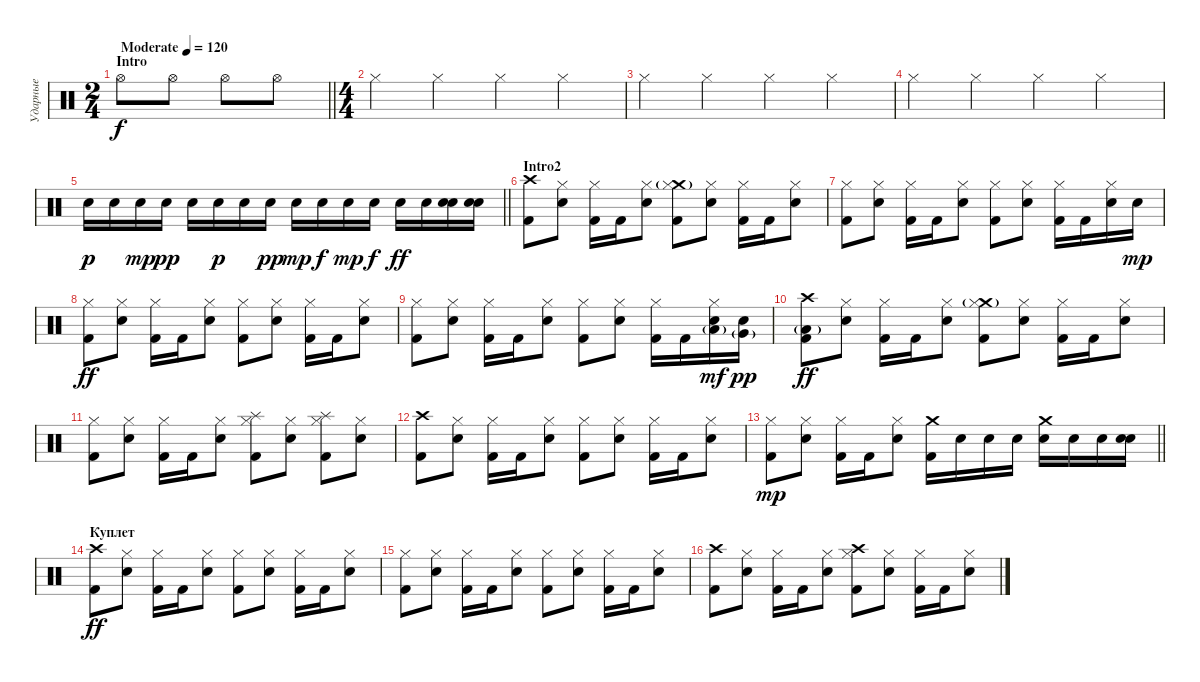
\track ("Ударные" "Ударные") {instrument percussion}
\staff {score}
\articulation defaults
\ts (2 4)
\section ("" "Intro")
\tempo (120 "Moderate")
\clef neutral
\barLineRight lightlight
\ks c "Hi-Hat (open)".8{dy f} "Hi-Hat (open)".8 "Hi-Hat (open)".8 "Hi-Hat (open)".8
|
\ts (4 4)
"Hi-Hat (closed)".4 "Hi-Hat (closed)".4 "Hi-Hat (closed)".4 "Hi-Hat (closed)".4 |
"Hi-Hat (closed)".4 "Hi-Hat (closed)".4 "Hi-Hat (closed)".4 "Hi-Hat (closed)".4 |
"Hi-Hat (closed)".4 "Hi-Hat (closed)".4 "Hi-Hat (closed)".4 "Hi-Hat (closed)".4 |
\barLineRight lightlight "Electric Snare (hit)".16{dy p} "Electric Snare (hit)".16 "Electric Snare (hit)".16{dy mp} "Electric Snare (hit)".16{dy pp} "Electric Snare (hit)".16 "Electric Snare (hit)".16{dy p} "Electric Snare (hit)".16 "Electric Snare (hit)".16{dy pp} "Electric Snare (hit)".16{dy mp} "Electric Snare (hit)".16{dy f} "Electric Snare (hit)".16{dy mp} "Electric Snare (hit)".16{dy f} "Electric Snare (hit)".16{dy ff} "Electric Snare (hit)".16
("Electric Snare (hit)" "Electric Snare (hit)").16 ("Electric Snare (hit)" "Electric Snare (hit)").16 |
\section ("" "Intro2")
("Crash high (hit)" "Kick (hit) 2").8 ("Hi-Hat (closed)" "Electric Snare (hit)").8 ("Hi-Hat (closed)" "Kick (hit) 2").16 "Kick (hit) 2".16 ("Hi-Hat (closed)" "Electric Snare (hit)").8 ("Crash medium (hit)"{g} "Hi-Hat (closed)" "Kick (hit) 2").8 ("Hi-Hat (closed)" "Electric Snare (hit)").8 ("Hi-Hat (closed)" "Kick (hit) 2").16 "Kick (hit) 2".16 ("Hi-Hat (closed)" "Electric Snare (hit)").8 |
("Hi-Hat (closed)" "Kick (hit) 2").8 ("Hi-Hat (closed)" "Electric Snare (hit)").8 ("Hi-Hat (closed)" "Kick (hit) 2").16 "Kick (hit) 2".16 ("Hi-Hat (closed)" "Electric Snare (hit)").8 ("Hi-Hat (closed)" "Kick (hit) 2").8 ("Hi-Hat (closed)" "Electric Snare (hit)").8 ("Hi-Hat (closed)" "Kick (hit) 2").16 "Kick (hit) 2".16 ("Hi-Hat (closed)" "Electric Snare (hit)").16 "Electric Snare (hit)".16{dy mp} |
("Hi-Hat (closed)" "Kick (hit) 2").8{dy ff} ("Hi-Hat (closed)" "Electric Snare (hit)").8 ("Hi-Hat (closed)" "Kick (hit) 2").16 "Kick (hit) 2".16 ("Hi-Hat (closed)" "Electric Snare (hit)").8 ("Hi-Hat (closed)" "Kick (hit) 2").8 ("Hi-Hat (closed)" "Electric Snare (hit)").8 ("Hi-Hat (closed)" "Kick (hit) 2").16 "Kick (hit) 2".16 ("Hi-Hat (closed)" "Electric Snare (hit)").8 |
("Hi-Hat (closed)" "Kick (hit) 2").8 ("Hi-Hat (closed)" "Electric Snare (hit)").8 ("Hi-Hat (closed)" "Kick (hit) 2").16 "Kick (hit) 2".16 ("Hi-Hat (closed)" "Electric Snare (hit)").8 ("Hi-Hat (closed)" "Kick (hit) 2").8 ("Hi-Hat (closed)" "Electric Snare (hit)").8 ("Hi-Hat (closed)" "Kick (hit) 2").16 "Kick (hit) 2".16 ("Hi-Hat (closed)" "Electric Snare (hit)" "Low Floor Tom (hit)"{g}).16{dy mf} ("Electric Snare (hit)" "Very Low Tom (hit)"{g}).16{dy pp} |
("Crash high (hit)" "Low Floor Tom (hit)"{g} "Kick (hit) 2").8{dy ff} ("Hi-Hat (closed)" "Electric Snare (hit)").8 ("Hi-Hat (closed)" "Kick (hit) 2").16 "Kick (hit) 2".16 ("Hi-Hat (closed)" "Electric Snare (hit)").8 ("Crash medium (hit)"{g} "Hi-Hat (closed)" "Kick (hit) 2").8 ("Hi-Hat (closed)" "Electric Snare (hit)").8 ("Hi-Hat (closed)" "Kick (hit) 2").16 "Kick (hit) 2".16 ("Hi-Hat (closed)" "Electric Snare (hit)").8 |
("Hi-Hat (closed)" "Kick (hit) 2").8 ("Hi-Hat (closed)" "Electric Snare (hit)").8 ("Hi-Hat (closed)" "Kick (hit) 2").16 "Kick (hit) 2".16 ("Hi-Hat (closed)" "Electric Snare (hit)").8 ("Splash (hit)" "Hi-Hat (closed)" "Kick (hit) 2").8 ("Hi-Hat (closed)" "Electric Snare (hit)").8 ("Splash (hit)" "Hi-Hat (closed)" "Kick (hit) 2").8 ("Hi-Hat (closed)" "Electric Snare (hit)").8 |
("Crash high (hit)" "Kick (hit) 2").8 ("Hi-Hat (closed)" "Electric Snare (hit)").8 ("Hi-Hat (closed)" "Kick (hit) 2").16 "Kick (hit) 2".16 ("Hi-Hat (closed)" "Electric Snare (hit)").8 ("Hi-Hat (closed)" "Kick (hit) 2").8 ("Hi-Hat (closed)" "Electric Snare (hit)").8 ("Hi-Hat (closed)" "Kick (hit) 2").16 "Kick (hit) 2".16 ("Hi-Hat (closed)" "Electric Snare (hit)").8 |
\barLineRight lightlight
("Hi-Hat (closed)" "Kick (hit) 2").8{dy mp} ("Hi-Hat (closed)" "Electric Snare (hit)").8 ("Hi-Hat (closed)" "Kick (hit) 2").16 "Kick (hit) 2".16 ("Hi-Hat (closed)" "Electric Snare (hit)").8 ("Crash medium (hit)" "Kick (hit) 2").16 "Snare (hit) 2".16 "Electric Snare (hit)".16 "Electric Snare (hit)".16 ("Crash medium (hit)" "Snare (hit) 2").16 "Snare (hit) 2".16 "Snare (hit) 2".16 ("Snare (hit) 2" "Snare (hit) 2").16 |
\section ("" "Куплет")
("Crash high (hit)" "Kick (hit) 2").8{dy ff} ("Hi-Hat (closed)" "Electric Snare (hit)").8 ("Hi-Hat (closed)" "Kick (hit) 2").16 "Kick (hit) 2".16 ("Hi-Hat (closed)" "Electric Snare (hit)").8 ("Hi-Hat (closed)" "Kick (hit) 2").8 ("Hi-Hat (closed)" "Electric Snare (hit)").8 ("Hi-Hat (closed)" "Kick (hit) 2").16 "Kick (hit) 2".16 ("Hi-Hat (closed)" "Electric Snare (hit)").8 |
("Hi-Hat (closed)" "Kick (hit) 2").8 ("Hi-Hat (closed)" "Electric Snare (hit)").8 ("Hi-Hat (closed)" "Kick (hit) 2").16 "Kick (hit) 2".16 ("Hi-Hat (closed)" "Electric Snare (hit)").8 ("Hi-Hat (closed)" "Kick (hit) 2").8 ("Hi-Hat (closed)" "Electric Snare (hit)").8 ("Hi-Hat (closed)" "Kick (hit) 2").16 "Kick (hit) 2".16 ("Hi-Hat (closed)" "Electric Snare (hit)").8 |
("Crash high (hit)" "Kick (hit) 2").8 ("Hi-Hat (closed)" "Electric Snare (hit)").8 ("Hi-Hat (closed)" "Kick (hit) 2").16 "Kick (hit) 2".16 ("Hi-Hat (closed)" "Electric Snare (hit)").8 ("Crash high (hit)" "Hi-Hat (closed)" "Kick (hit) 2").8 ("Hi-Hat (closed)" "Electric Snare (hit)").8 ("Hi-Hat (closed)" "Kick (hit) 2").16 "Kick (hit) 2".16 ("Hi-Hat (closed)" "Electric Snare (hit)").8
